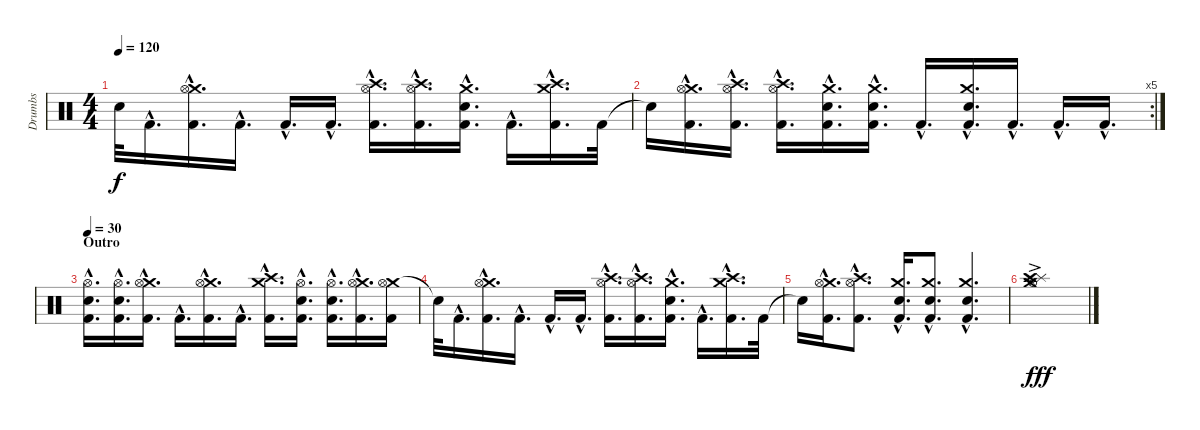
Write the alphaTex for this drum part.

\track ("Drumbs" "Drumbs") {instrument percussion}
\staff {score}
\articulation defaults
\ts (4 4)
\tempo 120
\clef neutral
\ks c "Snare (hit)"{t}.32{dy f} "Kick (hit) 2"{hac}.16{d}
("Crash medium (hit)"{hac} "Hi-Hat (open)"{hac} "Kick (hit) 2"{hac}).16{d} "Kick (hit) 2"{hac}.16{d} "Kick (hit) 2"{hac}.16{d} "Kick (hit) 2"{hac}.16{d} ("Hi-Hat (open)"{hac} "Crash high (hit)"{hac} "Kick (hit) 2"{hac}).16{d} ("Hi-Hat (open)"{hac} "Crash high (hit)"{hac} "Kick (hit) 2"{hac}).16{d} ("Crash medium (hit)"{hac} "Electric Snare (hit)"{hac} "Kick (hit) 2"{hac}).16{d} "Kick (hit) 2"{hac}.16{d} ("Crash medium (hit)"{hac} "Crash high (hit)"{hac} "Kick (hit) 2"{hac}).16{d} "Kick (hit) 2".32 |
\rc 5 "Snare (hit)"{t}.16
("Crash medium (hit)"{hac} "Hi-Hat (open)"{hac} "Kick (hit) 2"{hac}).16{d} ("Hi-Hat (open)"{hac} "Crash high (hit)"{hac} "Kick (hit) 2"{hac}).16{d} ("Hi-Hat (open)"{hac} "Crash high (hit)"{hac} "Kick (hit) 2"{hac}).16{d} ("Crash medium (hit)"{hac} "Electric Snare (hit)"{hac} "Kick (hit) 2"{hac}).16{d} ("Crash medium (hit)"{hac} "Electric Snare (hit)"{hac} "Kick (hit) 2"{hac}).16{d} "Kick (hit) 2"{hac}.16{d} ("Crash medium (hit)"{hac} "Electric Snare (hit)"{hac} "Kick (hit) 2"{hac}).16{d} "Kick (hit) 2"{hac}.16{d} "Kick (hit) 2"{hac}.16{d} "Kick (hit) 2"{hac}.16{d} |
\section ("" "Outro")
\tempo 30
("Hi-Hat (open)"{hac} "Electric Snare (hit)"{hac} "Kick (hit) 2"{hac}).16{d} ("Hi-Hat (open)"{hac} "Electric Snare (hit)"{hac} "Kick (hit) 2"{hac}).16{d} ("Crash medium (hit)"{hac} "Hi-Hat (open)"{hac} "Kick (hit) 2"{hac}).16{d} "Kick (hit) 2"{hac}.16{d} ("Crash medium (hit)"{hac} "Hi-Hat (open)"{hac} "Kick (hit) 2"{hac}).16{d} "Kick (hit) 2"{hac}.16{d} ("Crash medium (hit)"{hac} "Crash high (hit)"{hac} "Kick (hit) 2"{hac}).16{d} ("Hi-Hat (open)"{hac} "Electric Snare (hit)"{hac} "Kick (hit) 2"{hac}).16{d} ("Hi-Hat (open)"{hac} "Electric Snare (hit)"{hac} "Kick (hit) 2"{hac}).16{d} ("Crash medium (hit)"{hac} "Hi-Hat (open)"{hac} "Kick (hit) 2"{hac}).16{d} ("Crash medium (hit)" "Hi-Hat (open)" "Kick (hit) 2").16 |
"Snare (hit)"{t}.32 "Kick (hit) 2"{hac}.16{d} ("Crash medium (hit)"{hac} "Hi-Hat (open)"{hac} "Kick (hit) 2"{hac}).16{d} "Kick (hit) 2"{hac}.16{d} "Kick (hit) 2"{hac}.16{d} "Kick (hit) 2"{hac}.16{d} ("Hi-Hat (open)"{hac} "Crash high (hit)"{hac} "Kick (hit) 2"{hac}).16{d} ("Hi-Hat (open)"{hac} "Crash high (hit)"{hac} "Kick (hit) 2"{hac}).16{d} ("Crash medium (hit)"{hac} "Electric Snare (hit)"{hac} "Kick (hit) 2"{hac}).16{d} "Kick (hit) 2"{hac}.16{d} ("Crash medium (hit)"{hac} "Crash high (hit)"{hac} "Kick (hit) 2"{hac}).16{d} "Kick (hit) 2".32 |
"Snare (hit)"{t}.16 ("Crash medium (hit)"{hac} "Hi-Hat (open)"{hac} "Kick (hit) 2"{hac}).16{d} ("Hi-Hat (open)"{hac} "Crash high (hit)"{hac} "Kick (hit) 2"{hac}).8{d} ("Crash medium (hit)"{hac} "Electric Snare (hit)"{hac} "Kick (hit) 2"{hac}).16{d} ("Crash medium (hit)"{hac} "Electric Snare (hit)"{hac} "Kick (hit) 2"{hac}).8{d} ("Crash medium (hit)"{hac} "Electric Snare (hit)"{hac} "Kick (hit) 2"{hac}).4{d} |
("Splash (hit)"{ac} "Crash high (hit)"{ac} "Hi-Hat (open)"{ac} "Crash medium (hit)"{ac}).1{dy fff}
